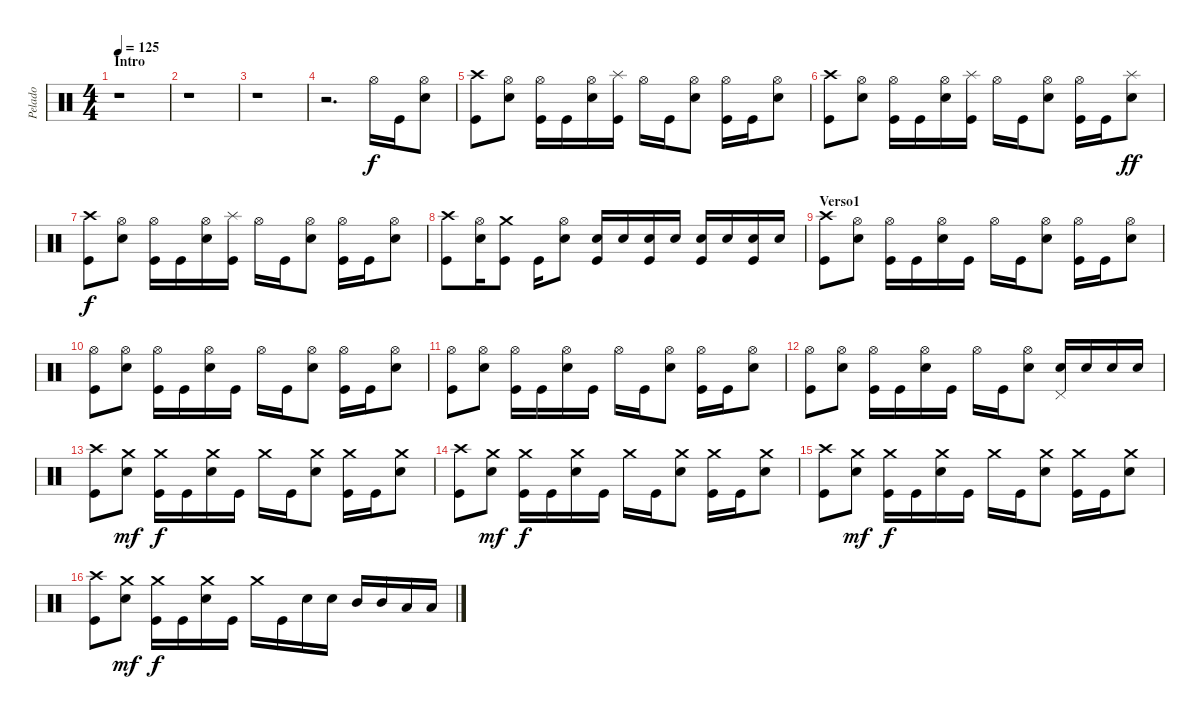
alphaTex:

\track ("Pelado" "Pelado") {instrument percussion}
\staff {score}
\articulation defaults
\ts (4 4)
\section ("" "Intro")
\tempo 125
\clef neutral
\ks c
r.1{dy f} |
r.1 |
r.1 |
r.2{d} "Hi-Hat (open)".16 "Kick (hit)".16 ("Hi-Hat (open)" "Electric Snare (hit)").8 |
("Crash high (hit)" "Kick (hit)").8 ("Hi-Hat (open)" "Electric Snare (hit)").8 ("Hi-Hat (open)" "Kick (hit)").16 "Kick (hit)".16 ("Hi-Hat (open)" "Electric Snare (hit)").16 ("Splash (hit)" "Kick (hit)").16 "Hi-Hat (open)".16 "Kick (hit)".16 ("Hi-Hat (open)" "Electric Snare (hit)").8 ("Hi-Hat (open)" "Kick (hit)").16 "Kick (hit)".16 ("Hi-Hat (open)" "Electric Snare (hit)").8 |
("Crash high (hit)" "Kick (hit)").8 ("Hi-Hat (open)" "Electric Snare (hit)").8 ("Hi-Hat (open)" "Kick (hit)").16 "Kick (hit)".16 ("Hi-Hat (open)" "Electric Snare (hit)").16 ("Splash (hit)" "Kick (hit)").16 "Hi-Hat (open)".16 "Kick (hit)".16 ("Hi-Hat (open)" "Electric Snare (hit)").8 ("Hi-Hat (open)" "Kick (hit)").16 "Kick (hit)".16 ("Splash (hit)" "Electric Snare (hit)").8{dy ff} |
("Crash high (hit)" "Kick (hit)").8{dy f} ("Hi-Hat (open)" "Electric Snare (hit)").8 ("Hi-Hat (open)" "Kick (hit)").16 "Kick (hit)".16 ("Hi-Hat (open)" "Electric Snare (hit)").16 ("Splash (hit)" "Kick (hit)").16 "Hi-Hat (open)".16 "Kick (hit)".16 ("Hi-Hat (open)" "Electric Snare (hit)").8 ("Hi-Hat (open)" "Kick (hit)").16 "Kick (hit)".16 ("Hi-Hat (open)" "Electric Snare (hit)").8 |
("Crash high (hit)" "Kick (hit)").8 ("Hi-Hat (open)" "Electric Snare (hit)").16 ("Crash medium (hit)" "Kick (hit)").8 "Kick (hit)".16 ("Hi-Hat (open)" "Electric Snare (hit)").8 ("Electric Snare (hit)" "Kick (hit)").16 "Electric Snare (hit)".16 ("Electric Snare (hit)" "Kick (hit)").16 "Electric Snare (hit)".16 ("Electric Snare (hit)" "Kick (hit)").16 "Electric Snare (hit)".16 ("Electric Snare (hit)" "Kick (hit)").16 "Electric Snare (hit)".16 |
\section ("" "Verso1")
("Crash high (hit)" "Kick (hit)").8 ("Hi-Hat (open)" "Electric Snare (hit)").8 ("Hi-Hat (open)" "Kick (hit)").16 "Kick (hit)".16 ("Hi-Hat (open)" "Electric Snare (hit)").16 "Kick (hit)".16 "Hi-Hat (open)".16 "Kick (hit)".16 ("Hi-Hat (open)" "Electric Snare (hit)").8 ("Hi-Hat (open)" "Kick (hit)").16 "Kick (hit)".16 ("Hi-Hat (open)" "Electric Snare (hit)").8 |
("Hi-Hat (open)" "Kick (hit)").8 ("Hi-Hat (open)" "Electric Snare (hit)").8 ("Hi-Hat (open)" "Kick (hit)").16 "Kick (hit)".16 ("Hi-Hat (open)" "Electric Snare (hit)").16 "Kick (hit)".16 "Hi-Hat (open)".16 "Kick (hit)".16 ("Hi-Hat (open)" "Electric Snare (hit)").8 ("Hi-Hat (open)" "Kick (hit)").16 "Kick (hit)".16 ("Hi-Hat (open)" "Electric Snare (hit)").8 |
("Hi-Hat (open)" "Kick (hit)").8 ("Hi-Hat (open)" "Electric Snare (hit)").8 ("Hi-Hat (open)" "Kick (hit)").16 "Kick (hit)".16 ("Hi-Hat (open)" "Electric Snare (hit)").16 "Kick (hit)".16 "Hi-Hat (open)".16 "Kick (hit)".16 ("Hi-Hat (open)" "Electric Snare (hit)").8 ("Hi-Hat (open)" "Kick (hit)").16 "Kick (hit)".16 ("Hi-Hat (open)" "Electric Snare (hit)").8 |
("Hi-Hat (open)" "Kick (hit)").8 ("Hi-Hat (open)" "Electric Snare (hit)").8 ("Hi-Hat (open)" "Kick (hit)").16 "Kick (hit)".16 ("Hi-Hat (open)" "Electric Snare (hit)").16 "Kick (hit)".16 "Hi-Hat (open)".16 "Kick (hit)".16 ("Hi-Hat (open)" "Electric Snare (hit)").8 ("Electric Snare (hit)" "Pedal Hi-Hat (hit)").16 "Electric Snare (hit)".16 "Electric Snare (hit)".16 "Electric Snare (hit)".16 |
("Crash high (hit)" "Kick (hit)").8 ("Crash medium (hit)" "Electric Snare (hit)").8{dy mf} ("Crash medium (hit)" "Kick (hit)").16{dy f} "Kick (hit)".16 ("Crash medium (hit)" "Electric Snare (hit)").16 "Kick (hit)".16 "Crash medium (hit)".16 "Kick (hit)".16 ("Crash medium (hit)" "Electric Snare (hit)").8 ("Crash medium (hit)" "Kick (hit)").16 "Kick (hit)".16 ("Crash medium (hit)" "Electric Snare (hit)").8 |
("Crash high (hit)" "Kick (hit)").8 ("Crash medium (hit)" "Electric Snare (hit)").8{dy mf} ("Crash medium (hit)" "Kick (hit)").16{dy f} "Kick (hit)".16 ("Crash medium (hit)" "Electric Snare (hit)").16 "Kick (hit)".16 "Crash medium (hit)".16 "Kick (hit)".16 ("Crash medium (hit)" "Electric Snare (hit)").8 ("Crash medium (hit)" "Kick (hit)").16 "Kick (hit)".16 ("Crash medium (hit)" "Electric Snare (hit)").8 |
("Crash high (hit)" "Kick (hit)").8 ("Crash medium (hit)" "Electric Snare (hit)").8{dy mf} ("Crash medium (hit)" "Kick (hit)").16{dy f} "Kick (hit)".16 ("Crash medium (hit)" "Electric Snare (hit)").16 "Kick (hit)".16 "Crash medium (hit)".16 "Kick (hit)".16 ("Crash medium (hit)" "Electric Snare (hit)").8 ("Crash medium (hit)" "Kick (hit)").16 "Kick (hit)".16 ("Crash medium (hit)" "Electric Snare (hit)").8 |
("Crash high (hit)" "Kick (hit)").8 ("Crash medium (hit)" "Electric Snare (hit)").8{dy mf} ("Crash medium (hit)" "Kick (hit)").16{dy f} "Kick (hit)".16 ("Crash medium (hit)" "Electric Snare (hit)").16 "Kick (hit)".16 "Crash medium (hit)".16 "Kick (hit)".16 "Electric Snare (hit)".16 "Electric Snare (hit)".16 "Mid Tom (hit)".16 "Mid Tom (hit)".16 "Low Tom (hit)".16 "Low Tom (hit)".16
